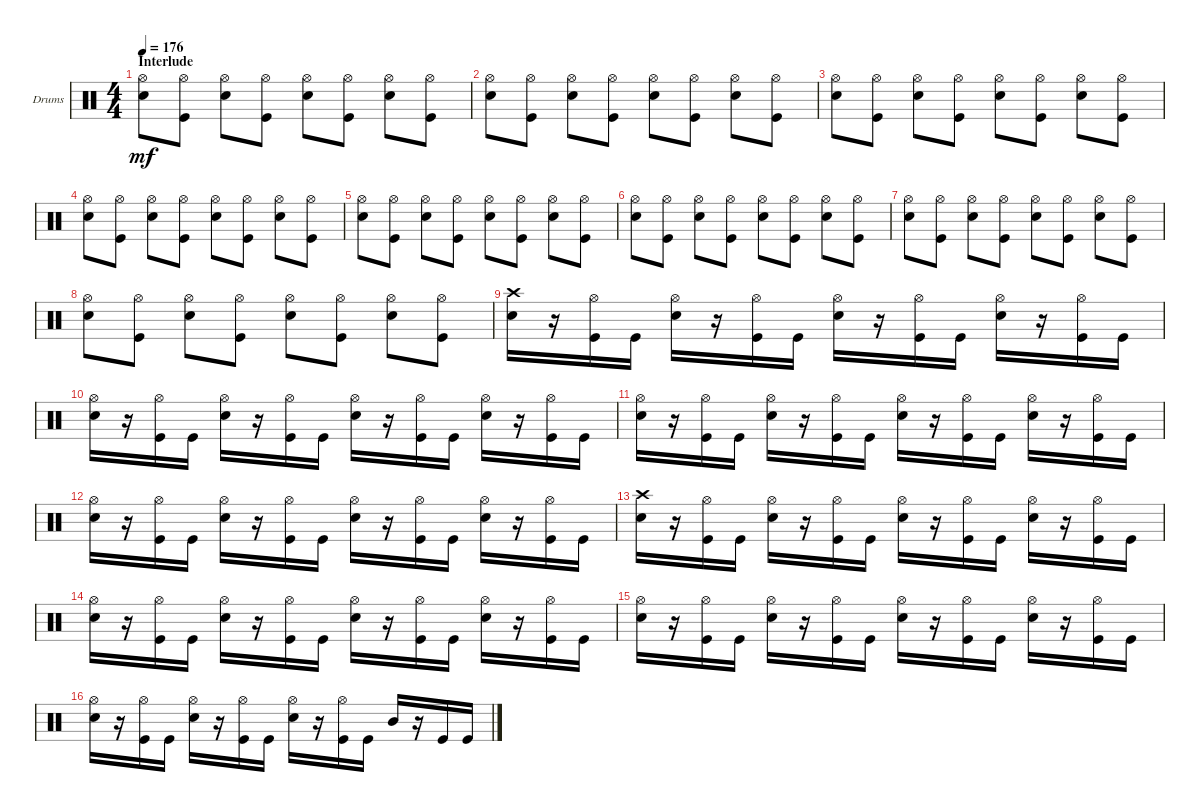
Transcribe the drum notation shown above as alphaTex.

\bracketExtendMode groupsimilarinstruments
\firstSystemTrackNameOrientation horizontal
\otherSystemsTrackNameOrientation horizontal
\track ("Drums" "Drums") {instrument percussion}
\staff {score}
\articulation defaults
\ts (4 4)
\section ("" "Interlude")
\tempo 176
\clef neutral
\ks c
("Snare (hit) 2" "Hi-Hat (open)").8{dy mf} ("Kick (hit)" "Hi-Hat (open)").8 ("Snare (hit) 2" "Hi-Hat (open)").8 ("Kick (hit)" "Hi-Hat (open)").8 ("Snare (hit) 2" "Hi-Hat (open)").8 ("Kick (hit)" "Hi-Hat (open)").8 ("Snare (hit) 2" "Hi-Hat (open)").8 ("Kick (hit)" "Hi-Hat (open)").8 |
("Snare (hit) 2" "Hi-Hat (open)").8 ("Kick (hit)" "Hi-Hat (open)").8 ("Snare (hit) 2" "Hi-Hat (open)").8 ("Kick (hit)" "Hi-Hat (open)").8 ("Snare (hit) 2" "Hi-Hat (open)").8 ("Kick (hit)" "Hi-Hat (open)").8 ("Snare (hit) 2" "Hi-Hat (open)").8 ("Kick (hit)" "Hi-Hat (open)").8 |
("Snare (hit) 2" "Hi-Hat (open)").8 ("Kick (hit)" "Hi-Hat (open)").8 ("Snare (hit) 2" "Hi-Hat (open)").8 ("Kick (hit)" "Hi-Hat (open)").8 ("Snare (hit) 2" "Hi-Hat (open)").8 ("Kick (hit)" "Hi-Hat (open)").8 ("Snare (hit) 2" "Hi-Hat (open)").8 ("Kick (hit)" "Hi-Hat (open)").8 |
("Snare (hit) 2" "Hi-Hat (open)").8 ("Kick (hit)" "Hi-Hat (open)").8 ("Snare (hit) 2" "Hi-Hat (open)").8 ("Kick (hit)" "Hi-Hat (open)").8 ("Snare (hit) 2" "Hi-Hat (open)").8 ("Kick (hit)" "Hi-Hat (open)").8 ("Snare (hit) 2" "Hi-Hat (open)").8 ("Kick (hit)" "Hi-Hat (open)").8 |
("Snare (hit) 2" "Hi-Hat (open)").8 ("Kick (hit)" "Hi-Hat (open)").8 ("Snare (hit) 2" "Hi-Hat (open)").8 ("Kick (hit)" "Hi-Hat (open)").8 ("Snare (hit) 2" "Hi-Hat (open)").8 ("Kick (hit)" "Hi-Hat (open)").8 ("Snare (hit) 2" "Hi-Hat (open)").8 ("Kick (hit)" "Hi-Hat (open)").8 |
("Snare (hit) 2" "Hi-Hat (open)").8 ("Kick (hit)" "Hi-Hat (open)").8 ("Snare (hit) 2" "Hi-Hat (open)").8 ("Kick (hit)" "Hi-Hat (open)").8 ("Snare (hit) 2" "Hi-Hat (open)").8 ("Kick (hit)" "Hi-Hat (open)").8 ("Snare (hit) 2" "Hi-Hat (open)").8 ("Kick (hit)" "Hi-Hat (open)").8 |
("Snare (hit) 2" "Hi-Hat (open)").8 ("Kick (hit)" "Hi-Hat (open)").8 ("Snare (hit) 2" "Hi-Hat (open)").8 ("Kick (hit)" "Hi-Hat (open)").8 ("Snare (hit) 2" "Hi-Hat (open)").8 ("Kick (hit)" "Hi-Hat (open)").8 ("Snare (hit) 2" "Hi-Hat (open)").8 ("Kick (hit)" "Hi-Hat (open)").8 |
("Snare (hit) 2" "Hi-Hat (open)").8 ("Kick (hit)" "Hi-Hat (open)").8 ("Snare (hit) 2" "Hi-Hat (open)").8 ("Kick (hit)" "Hi-Hat (open)").8 ("Snare (hit) 2" "Hi-Hat (open)").8 ("Kick (hit)" "Hi-Hat (open)").8 ("Snare (hit) 2" "Hi-Hat (open)").8 ("Kick (hit)" "Hi-Hat (open)").8 |
("Snare (hit) 2" "Crash high (hit)").16 r.16 ("Kick (hit)" "Hi-Hat (open)").16 "Kick (hit)".16 ("Snare (hit) 2" "Hi-Hat (open)").16 r.16 ("Kick (hit)" "Hi-Hat (open)").16 "Kick (hit)".16 ("Snare (hit) 2" "Hi-Hat (open)").16 r.16 ("Kick (hit)" "Hi-Hat (open)").16 "Kick (hit)".16 ("Snare (hit) 2" "Hi-Hat (open)").16 r.16 ("Kick (hit)" "Hi-Hat (open)").16 "Kick (hit)".16 |
("Snare (hit) 2" "Hi-Hat (open)").16 r.16 ("Kick (hit)" "Hi-Hat (open)").16 "Kick (hit)".16 ("Snare (hit) 2" "Hi-Hat (open)").16 r.16 ("Kick (hit)" "Hi-Hat (open)").16 "Kick (hit)".16 ("Snare (hit) 2" "Hi-Hat (open)").16 r.16 ("Kick (hit)" "Hi-Hat (open)").16 "Kick (hit)".16 ("Snare (hit) 2" "Hi-Hat (open)").16 r.16 ("Kick (hit)" "Hi-Hat (open)").16 "Kick (hit)".16 |
("Snare (hit) 2" "Hi-Hat (open)").16 r.16 ("Kick (hit)" "Hi-Hat (open)").16 "Kick (hit)".16 ("Snare (hit) 2" "Hi-Hat (open)").16 r.16 ("Kick (hit)" "Hi-Hat (open)").16 "Kick (hit)".16 ("Snare (hit) 2" "Hi-Hat (open)").16 r.16 ("Kick (hit)" "Hi-Hat (open)").16 "Kick (hit)".16 ("Snare (hit) 2" "Hi-Hat (open)").16 r.16 ("Kick (hit)" "Hi-Hat (open)").16 "Kick (hit)".16 |
("Snare (hit) 2" "Hi-Hat (open)").16 r.16 ("Kick (hit)" "Hi-Hat (open)").16 "Kick (hit)".16 ("Snare (hit) 2" "Hi-Hat (open)").16 r.16 ("Kick (hit)" "Hi-Hat (open)").16 "Kick (hit)".16 ("Snare (hit) 2" "Hi-Hat (open)").16 r.16 ("Kick (hit)" "Hi-Hat (open)").16 "Kick (hit)".16 ("Snare (hit) 2" "Hi-Hat (open)").16 r.16 ("Kick (hit)" "Hi-Hat (open)").16 "Kick (hit)".16 |
("Snare (hit) 2" "Crash high (hit)").16 r.16 ("Kick (hit)" "Hi-Hat (open)").16 "Kick (hit)".16 ("Snare (hit) 2" "Hi-Hat (open)").16 r.16 ("Kick (hit)" "Hi-Hat (open)").16 "Kick (hit)".16 ("Snare (hit) 2" "Hi-Hat (open)").16 r.16 ("Kick (hit)" "Hi-Hat (open)").16 "Kick (hit)".16 ("Snare (hit) 2" "Hi-Hat (open)").16 r.16 ("Kick (hit)" "Hi-Hat (open)").16 "Kick (hit)".16 |
("Snare (hit) 2" "Hi-Hat (open)").16 r.16 ("Kick (hit)" "Hi-Hat (open)").16 "Kick (hit)".16 ("Snare (hit) 2" "Hi-Hat (open)").16 r.16 ("Kick (hit)" "Hi-Hat (open)").16 "Kick (hit)".16 ("Snare (hit) 2" "Hi-Hat (open)").16 r.16 ("Kick (hit)" "Hi-Hat (open)").16 "Kick (hit)".16 ("Snare (hit) 2" "Hi-Hat (open)").16 r.16 ("Kick (hit)" "Hi-Hat (open)").16 "Kick (hit)".16 |
("Snare (hit) 2" "Hi-Hat (open)").16 r.16 ("Kick (hit)" "Hi-Hat (open)").16 "Kick (hit)".16 ("Snare (hit) 2" "Hi-Hat (open)").16 r.16 ("Kick (hit)" "Hi-Hat (open)").16 "Kick (hit)".16 ("Snare (hit) 2" "Hi-Hat (open)").16 r.16 ("Kick (hit)" "Hi-Hat (open)").16 "Kick (hit)".16 ("Snare (hit) 2" "Hi-Hat (open)").16 r.16 ("Kick (hit)" "Hi-Hat (open)").16 "Kick (hit)".16 |
("Snare (hit) 2" "Hi-Hat (open)").16 r.16 ("Kick (hit)" "Hi-Hat (open)").16 "Kick (hit)".16 ("Snare (hit) 2" "Hi-Hat (open)").16 r.16 ("Kick (hit)" "Hi-Hat (open)").16 "Kick (hit)".16 ("Snare (hit) 2" "Hi-Hat (open)").16 r.16 ("Kick (hit)" "Hi-Hat (open)").16 "Kick (hit)".16 "Mid Tom (hit)".16 r.16 "Kick (hit)".16 "Kick (hit)".16
